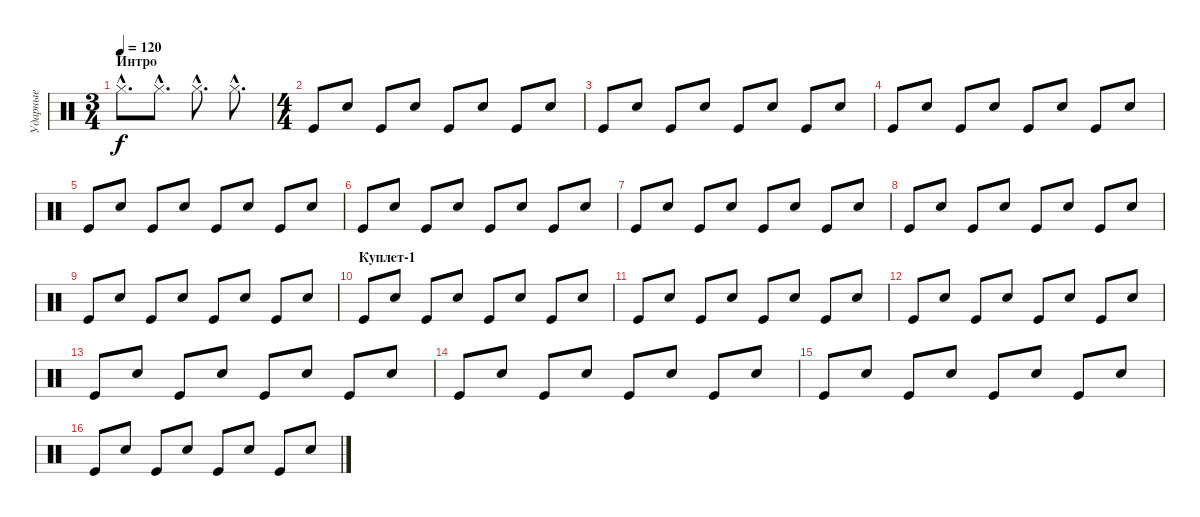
\track ("Ударные" "Ударные") {instrument percussion}
\staff {score}
\articulation defaults
\ts (3 4)
\section ("" "Интро")
\tempo 120
\clef neutral
\ks c "Hi-Hat (closed)"{hac}.8{d dy f} "Hi-Hat (closed)"{hac}.8{d} "Hi-Hat (closed)"{hac}.8{d} "Hi-Hat (closed)"{hac}.8{d}
|
\ts (4 4)
"Kick (hit)".8 "Electric Snare (hit)".8 "Kick (hit)".8 "Electric Snare (hit)".8 "Kick (hit)".8 "Electric Snare (hit)".8 "Kick (hit)".8 "Electric Snare (hit)".8 |
"Kick (hit)".8 "Electric Snare (hit)".8 "Kick (hit)".8 "Electric Snare (hit)".8 "Kick (hit)".8 "Electric Snare (hit)".8 "Kick (hit)".8 "Electric Snare (hit)".8 |
"Kick (hit)".8 "Electric Snare (hit)".8 "Kick (hit)".8 "Electric Snare (hit)".8 "Kick (hit)".8 "Electric Snare (hit)".8 "Kick (hit)".8 "Electric Snare (hit)".8 |
"Kick (hit)".8 "Electric Snare (hit)".8 "Kick (hit)".8 "Electric Snare (hit)".8 "Kick (hit)".8 "Electric Snare (hit)".8 "Kick (hit)".8 "Electric Snare (hit)".8 |
"Kick (hit)".8 "Electric Snare (hit)".8 "Kick (hit)".8 "Electric Snare (hit)".8 "Kick (hit)".8 "Electric Snare (hit)".8 "Kick (hit)".8 "Electric Snare (hit)".8 |
"Kick (hit)".8 "Electric Snare (hit)".8 "Kick (hit)".8 "Electric Snare (hit)".8 "Kick (hit)".8 "Electric Snare (hit)".8 "Kick (hit)".8 "Electric Snare (hit)".8 |
"Kick (hit)".8 "Electric Snare (hit)".8 "Kick (hit)".8 "Electric Snare (hit)".8 "Kick (hit)".8 "Electric Snare (hit)".8 "Kick (hit)".8 "Electric Snare (hit)".8 |
"Kick (hit)".8 "Electric Snare (hit)".8 "Kick (hit)".8 "Electric Snare (hit)".8 "Kick (hit)".8 "Electric Snare (hit)".8 "Kick (hit)".8 "Electric Snare (hit)".8 |
\section ("" "Куплет-1")
"Kick (hit)".8 "Electric Snare (hit)".8 "Kick (hit)".8 "Electric Snare (hit)".8 "Kick (hit)".8 "Electric Snare (hit)".8 "Kick (hit)".8 "Electric Snare (hit)".8 |
"Kick (hit)".8 "Electric Snare (hit)".8 "Kick (hit)".8 "Electric Snare (hit)".8 "Kick (hit)".8 "Electric Snare (hit)".8 "Kick (hit)".8 "Electric Snare (hit)".8 |
"Kick (hit)".8 "Electric Snare (hit)".8 "Kick (hit)".8 "Electric Snare (hit)".8 "Kick (hit)".8 "Electric Snare (hit)".8 "Kick (hit)".8 "Electric Snare (hit)".8 |
"Kick (hit)".8 "Electric Snare (hit)".8 "Kick (hit)".8 "Electric Snare (hit)".8 "Kick (hit)".8 "Electric Snare (hit)".8 "Kick (hit)".8 "Electric Snare (hit)".8 |
"Kick (hit)".8 "Electric Snare (hit)".8 "Kick (hit)".8 "Electric Snare (hit)".8 "Kick (hit)".8 "Electric Snare (hit)".8 "Kick (hit)".8 "Electric Snare (hit)".8 |
"Kick (hit)".8 "Electric Snare (hit)".8 "Kick (hit)".8 "Electric Snare (hit)".8 "Kick (hit)".8 "Electric Snare (hit)".8 "Kick (hit)".8 "Electric Snare (hit)".8 |
"Kick (hit)".8 "Electric Snare (hit)".8 "Kick (hit)".8 "Electric Snare (hit)".8 "Kick (hit)".8 "Electric Snare (hit)".8 "Kick (hit)".8 "Electric Snare (hit)".8
